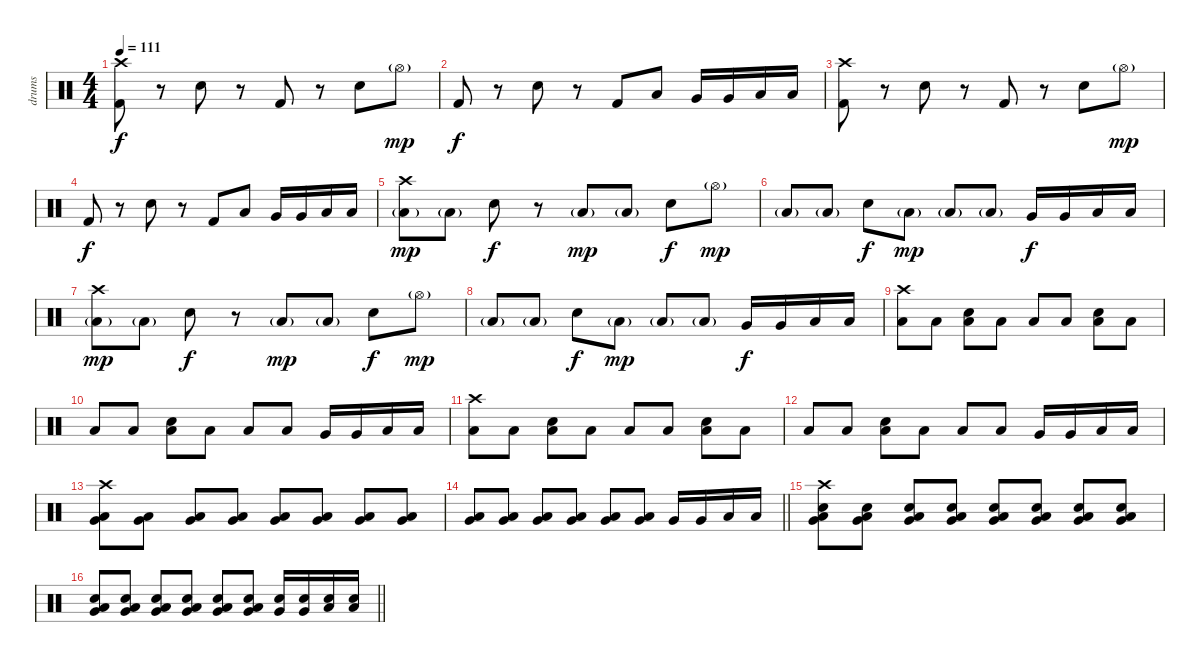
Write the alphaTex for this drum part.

\track ("drums" "drums") {instrument percussion}
\staff {score}
\articulation defaults
\ts (4 4)
\tempo 111
\clef neutral
\ks c
("Kick (hit) 2" "Crash high (hit)").8{dy f} r.8 "Electric Snare (hit)".8 r.8 "Kick (hit) 2".8 r.8 "Electric Snare (hit)".8 "Hi-Hat (open)"{g}.8{dy mp} |
"Kick (hit) 2".8{dy f} r.8 "Electric Snare (hit)".8 r.8 "Kick (hit) 2".8 "Low Floor Tom (hit)".8 "Very Low Tom (hit)".16 "Very Low Tom (hit)".16 "Low Floor Tom (hit)".16 "Low Floor Tom (hit)".16 |
("Kick (hit) 2" "Crash high (hit)").8 r.8 "Electric Snare (hit)".8 r.8 "Kick (hit) 2".8 r.8 "Electric Snare (hit)".8 "Hi-Hat (open)"{g}.8{dy mp} |
"Kick (hit) 2".8{dy f} r.8 "Electric Snare (hit)".8 r.8 "Kick (hit) 2".8 "Low Floor Tom (hit)".8 "Very Low Tom (hit)".16 "Very Low Tom (hit)".16 "Low Floor Tom (hit)".16 "Low Floor Tom (hit)".16 |
("Low Floor Tom (hit)"{g} "Crash high (hit)").8{dy mp} "Low Floor Tom (hit)"{g}.8 "Electric Snare (hit)".8{dy f} r.8 "Low Floor Tom (hit)"{g}.8{dy mp} "Low Floor Tom (hit)"{g}.8 "Electric Snare (hit)".8{dy f} "Hi-Hat (open)"{g}.8{dy mp} |
"Low Floor Tom (hit)"{g}.8 "Low Floor Tom (hit)"{g}.8 "Electric Snare (hit)".8{dy f} "Low Floor Tom (hit)"{g}.8{dy mp} "Low Floor Tom (hit)"{g}.8 "Low Floor Tom (hit)"{g}.8 "Very Low Tom (hit)".16{dy f} "Very Low Tom (hit)".16 "Low Floor Tom (hit)".16 "Low Floor Tom (hit)".16 |
("Low Floor Tom (hit)"{g} "Crash high (hit)").8{dy mp} "Low Floor Tom (hit)"{g}.8 "Electric Snare (hit)".8{dy f} r.8 "Low Floor Tom (hit)"{g}.8{dy mp} "Low Floor Tom (hit)"{g}.8 "Electric Snare (hit)".8{dy f} "Hi-Hat (open)"{g}.8{dy mp} |
"Low Floor Tom (hit)"{g}.8 "Low Floor Tom (hit)"{g}.8 "Electric Snare (hit)".8{dy f} "Low Floor Tom (hit)"{g}.8{dy mp} "Low Floor Tom (hit)"{g}.8 "Low Floor Tom (hit)"{g}.8 "Very Low Tom (hit)".16{dy f} "Very Low Tom (hit)".16 "Low Floor Tom (hit)".16 "Low Floor Tom (hit)".16 |
("Low Floor Tom (hit)" "Crash high (hit)").8 "Low Floor Tom (hit)".8 ("Electric Snare (hit)" "Low Floor Tom (hit)").8 "Low Floor Tom (hit)".8 "Low Floor Tom (hit)".8 "Low Floor Tom (hit)".8 ("Electric Snare (hit)" "Low Floor Tom (hit)").8 "Low Floor Tom (hit)".8 |
"Low Floor Tom (hit)".8 "Low Floor Tom (hit)".8 ("Electric Snare (hit)" "Low Floor Tom (hit)").8 "Low Floor Tom (hit)".8 "Low Floor Tom (hit)".8 "Low Floor Tom (hit)".8 "Very Low Tom (hit)".16 "Very Low Tom (hit)".16 "Low Floor Tom (hit)".16 "Low Floor Tom (hit)".16 |
("Low Floor Tom (hit)" "Crash high (hit)").8 "Low Floor Tom (hit)".8 ("Electric Snare (hit)" "Low Floor Tom (hit)").8 "Low Floor Tom (hit)".8 "Low Floor Tom (hit)".8 "Low Floor Tom (hit)".8 ("Electric Snare (hit)" "Low Floor Tom (hit)").8 "Low Floor Tom (hit)".8 |
"Low Floor Tom (hit)".8 "Low Floor Tom (hit)".8 ("Electric Snare (hit)" "Low Floor Tom (hit)").8 "Low Floor Tom (hit)".8 "Low Floor Tom (hit)".8 "Low Floor Tom (hit)".8 "Very Low Tom (hit)".16 "Very Low Tom (hit)".16 "Low Floor Tom (hit)".16 "Low Floor Tom (hit)".16 |
("Very Low Tom (hit)" "Low Floor Tom (hit)" "Crash high (hit)").8 ("Very Low Tom (hit)" "Low Floor Tom (hit)").8 ("Very Low Tom (hit)" "Low Floor Tom (hit)").8 ("Very Low Tom (hit)" "Low Floor Tom (hit)").8 ("Very Low Tom (hit)" "Low Floor Tom (hit)").8 ("Very Low Tom (hit)" "Low Floor Tom (hit)").8 ("Very Low Tom (hit)" "Low Floor Tom (hit)").8 ("Very Low Tom (hit)" "Low Floor Tom (hit)").8 |
\barLineRight lightlight
("Very Low Tom (hit)" "Low Floor Tom (hit)").8 ("Very Low Tom (hit)" "Low Floor Tom (hit)").8 ("Very Low Tom (hit)" "Low Floor Tom (hit)").8 ("Very Low Tom (hit)" "Low Floor Tom (hit)").8 ("Very Low Tom (hit)" "Low Floor Tom (hit)").8 ("Very Low Tom (hit)" "Low Floor Tom (hit)").8 "Very Low Tom (hit)".16 "Very Low Tom (hit)".16 "Low Floor Tom (hit)".16 "Low Floor Tom (hit)".16 |
("Very Low Tom (hit)" "Electric Snare (hit)" "Low Floor Tom (hit)" "Crash high (hit)").8 ("Very Low Tom (hit)" "Electric Snare (hit)" "Low Floor Tom (hit)").8 ("Very Low Tom (hit)" "Electric Snare (hit)" "Low Floor Tom (hit)").8 ("Very Low Tom (hit)" "Electric Snare (hit)" "Low Floor Tom (hit)").8 ("Very Low Tom (hit)" "Electric Snare (hit)" "Low Floor Tom (hit)").8 ("Very Low Tom (hit)" "Electric Snare (hit)" "Low Floor Tom (hit)").8 ("Very Low Tom (hit)" "Electric Snare (hit)" "Low Floor Tom (hit)").8 ("Very Low Tom (hit)" "Electric Snare (hit)" "Low Floor Tom (hit)").8 |
\barLineRight lightlight
("Very Low Tom (hit)" "Electric Snare (hit)" "Low Floor Tom (hit)").8 ("Very Low Tom (hit)" "Electric Snare (hit)" "Low Floor Tom (hit)").8 ("Very Low Tom (hit)" "Electric Snare (hit)" "Low Floor Tom (hit)").8 ("Very Low Tom (hit)" "Electric Snare (hit)" "Low Floor Tom (hit)").8 ("Very Low Tom (hit)" "Electric Snare (hit)" "Low Floor Tom (hit)").8 ("Very Low Tom (hit)" "Electric Snare (hit)" "Low Floor Tom (hit)").8 ("Electric Snare (hit)" "Very Low Tom (hit)").16 ("Electric Snare (hit)" "Very Low Tom (hit)").16 ("Electric Snare (hit)" "Low Floor Tom (hit)").16 ("Electric Snare (hit)" "Low Floor Tom (hit)").16
